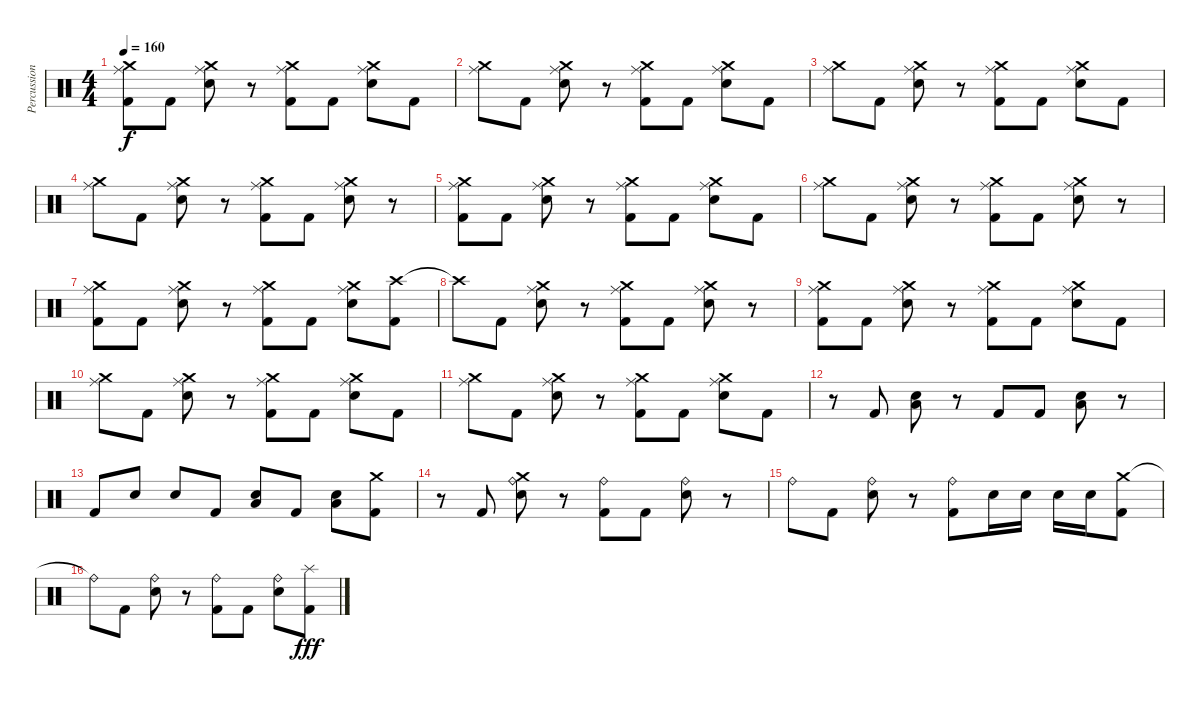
\track ("Percussion" "Percussion") {instrument percussion}
\staff {score}
\articulation defaults
\ts (4 4)
\tempo 160
\clef neutral
\ks c
("Ride (middle)" "Crash medium (hit)" "Kick (hit) 2").8{dy f} "Kick (hit) 2".8 ("Ride (middle)" "Crash medium (hit)" "Electric Snare (hit)").8 r.8 ("Ride (middle)" "Crash medium (hit)" "Kick (hit) 2").8 "Kick (hit) 2".8 ("Ride (middle)" "Crash medium (hit)" "Electric Snare (hit)").8 "Kick (hit) 2".8 |
("Ride (middle)" "Crash medium (hit)").8 "Kick (hit) 2".8 ("Ride (middle)" "Crash medium (hit)" "Electric Snare (hit)").8 r.8 ("Ride (middle)" "Crash medium (hit)" "Kick (hit) 2").8 "Kick (hit) 2".8 ("Ride (middle)" "Crash medium (hit)" "Electric Snare (hit)").8 "Kick (hit) 2".8 |
("Ride (middle)" "Crash medium (hit)").8 "Kick (hit) 2".8 ("Ride (middle)" "Crash medium (hit)" "Electric Snare (hit)").8 r.8 ("Ride (middle)" "Crash medium (hit)" "Kick (hit) 2").8 "Kick (hit) 2".8 ("Ride (middle)" "Crash medium (hit)" "Electric Snare (hit)").8 "Kick (hit) 2".8 |
("Ride (middle)" "Crash medium (hit)").8 "Kick (hit) 2".8 ("Ride (middle)" "Crash medium (hit)" "Electric Snare (hit)").8 r.8 ("Ride (middle)" "Crash medium (hit)" "Kick (hit) 2").8 "Kick (hit) 2".8 ("Ride (middle)" "Crash medium (hit)" "Electric Snare (hit)").8 r.8 |
("Ride (middle)" "Crash medium (hit)" "Kick (hit) 2").8 "Kick (hit) 2".8 ("Ride (middle)" "Crash medium (hit)" "Electric Snare (hit)").8 r.8 ("Ride (middle)" "Crash medium (hit)" "Kick (hit) 2").8 "Kick (hit) 2".8 ("Ride (middle)" "Crash medium (hit)" "Electric Snare (hit)").8 "Kick (hit) 2".8 |
("Ride (middle)" "Crash medium (hit)").8 "Kick (hit) 2".8 ("Ride (middle)" "Crash medium (hit)" "Electric Snare (hit)").8 r.8 ("Ride (middle)" "Crash medium (hit)" "Kick (hit) 2").8 "Kick (hit) 2".8 ("Ride (middle)" "Crash medium (hit)" "Electric Snare (hit)").8 r.8 |
("Ride (middle)" "Crash medium (hit)" "Kick (hit) 2").8 "Kick (hit) 2".8 ("Ride (middle)" "Crash medium (hit)" "Electric Snare (hit)").8 r.8 ("Ride (middle)" "Crash medium (hit)" "Kick (hit) 2").8 "Kick (hit) 2".8 ("Ride (middle)" "Crash medium (hit)" "Electric Snare (hit)").8 ("Crash high (hit)" "Kick (hit) 2").8 |
"Crash high (hit)"{t}.8 "Kick (hit) 2".8 ("Ride (middle)" "Crash medium (hit)" "Electric Snare (hit)").8 r.8 ("Ride (middle)" "Crash medium (hit)" "Kick (hit) 2").8 "Kick (hit) 2".8 ("Ride (middle)" "Crash medium (hit)" "Electric Snare (hit)").8 r.8 |
("Ride (middle)" "Crash medium (hit)" "Kick (hit) 2").8 "Kick (hit) 2".8 ("Ride (middle)" "Crash medium (hit)" "Electric Snare (hit)").8 r.8 ("Ride (middle)" "Crash medium (hit)" "Kick (hit) 2").8 "Kick (hit) 2".8 ("Ride (middle)" "Crash medium (hit)" "Electric Snare (hit)").8 "Kick (hit) 2".8 |
("Ride (middle)" "Crash medium (hit)").8 "Kick (hit) 2".8 ("Ride (middle)" "Crash medium (hit)" "Electric Snare (hit)").8 r.8 ("Ride (middle)" "Crash medium (hit)" "Kick (hit) 2").8 "Kick (hit) 2".8 ("Ride (middle)" "Crash medium (hit)" "Electric Snare (hit)").8 "Kick (hit) 2".8 |
("Ride (middle)" "Crash medium (hit)").8 "Kick (hit) 2".8 ("Ride (middle)" "Crash medium (hit)" "Electric Snare (hit)").8 r.8 ("Ride (middle)" "Crash medium (hit)" "Kick (hit) 2").8 "Kick (hit) 2".8 ("Ride (middle)" "Crash medium (hit)" "Electric Snare (hit)").8 "Kick (hit) 2".8 |
r.8 "Kick (hit) 2".8 ("Low Tom (hit)" "Electric Snare (hit)").8 r.8 "Kick (hit) 2".8 "Kick (hit) 2".8 ("Low Tom (hit)" "Electric Snare (hit)").8 r.8 |
"Kick (hit) 2".8 "Electric Snare (hit)".8 "Electric Snare (hit)".8 "Kick (hit) 2".8 ("Low Tom (hit)" "Electric Snare (hit)").8 "Kick (hit) 2".8 ("Low Tom (hit)" "Electric Snare (hit)").8 ("Crash medium (hit)" "Kick (hit) 2").8 |
r.8 "Kick (hit) 2".8 ("Crash medium (hit)" "Ride (bell)" "Electric Snare (hit)").8 r.8 ("Ride (bell)" "Kick (hit) 2").8 "Kick (hit) 2".8 ("Ride (bell)" "Electric Snare (hit)").8 r.8 |
"Ride (bell)".8 "Kick (hit) 2".8 ("Ride (bell)" "Electric Snare (hit)").8 r.8 ("Ride (bell)" "Kick (hit) 2").8 "Electric Snare (hit)".16 "Electric Snare (hit)".16 "Electric Snare (hit)".16 "Electric Snare (hit)".16 ("Crash medium (hit)" "Kick (hit) 2").8 |
"Ride (bell)"{t}.8 "Kick (hit) 2".8 ("Ride (bell)" "Electric Snare (hit)").8 r.8 ("Ride (bell)" "Kick (hit) 2").8 "Kick (hit) 2".8 ("Ride (bell)" "Electric Snare (hit)").8 ("Splash (hit)" "Kick (hit) 2").8{dy fff}
